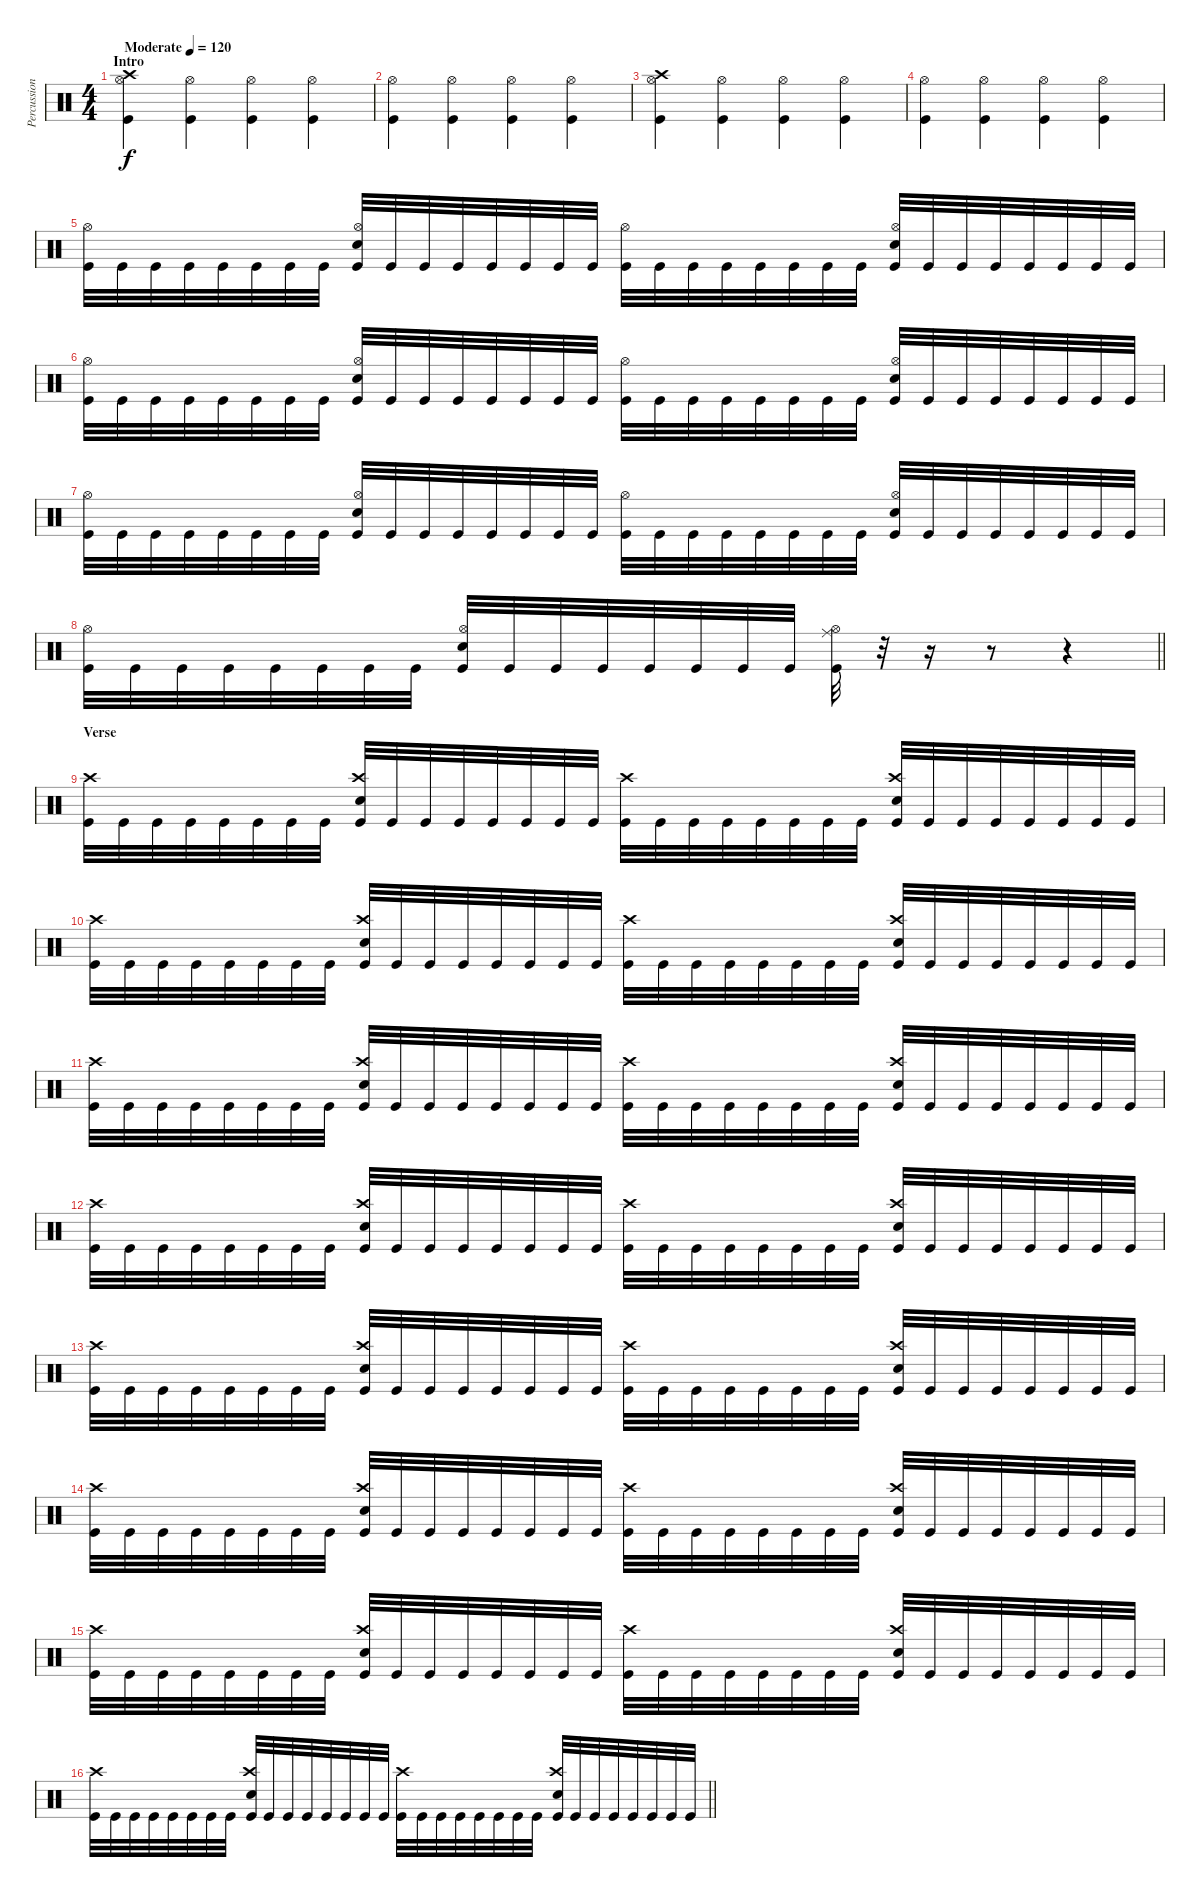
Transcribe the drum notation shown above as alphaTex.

\track ("Percussion" "Percussion") {instrument percussion}
\staff {score}
\articulation defaults
\ts (4 4)
\section ("" "Intro")
\tempo (120 "Moderate")
\clef neutral
\ks c
("Kick (hit)" "Crash high (hit)" "Hi-Hat (open)").4{dy f} ("Kick (hit)" "Hi-Hat (open)").4 ("Kick (hit)" "Hi-Hat (open)").4 ("Kick (hit)" "Hi-Hat (open)").4 |
("Kick (hit)" "Hi-Hat (open)").4 ("Hi-Hat (open)" "Kick (hit)").4 ("Hi-Hat (open)" "Kick (hit)").4 ("Hi-Hat (open)" "Kick (hit)").4 |
("Kick (hit)" "Crash high (hit)" "Hi-Hat (open)").4 ("Kick (hit)" "Hi-Hat (open)").4 ("Kick (hit)" "Hi-Hat (open)").4 ("Kick (hit)" "Hi-Hat (open)").4 |
("Kick (hit)" "Hi-Hat (open)").4 ("Hi-Hat (open)" "Kick (hit)").4 ("Hi-Hat (open)" "Kick (hit)").4 ("Hi-Hat (open)" "Kick (hit)").4 |
("Kick (hit)" "Hi-Hat (open)").32 "Kick (hit)".32 "Kick (hit)".32 "Kick (hit)".32 "Kick (hit)".32 "Kick (hit)".32 "Kick (hit)".32 "Kick (hit)".32 ("Kick (hit)" "Hi-Hat (open)" "Snare (hit) 2").32 "Kick (hit)".32 "Kick (hit)".32 "Kick (hit)".32 "Kick (hit)".32 "Kick (hit)".32 "Kick (hit)".32 "Kick (hit)".32 ("Kick (hit)" "Hi-Hat (open)").32 "Kick (hit)".32 "Kick (hit)".32 "Kick (hit)".32 "Kick (hit)".32 "Kick (hit)".32 "Kick (hit)".32 "Kick (hit)".32 ("Kick (hit)" "Hi-Hat (open)" "Snare (hit) 2").32 "Kick (hit)".32 "Kick (hit)".32 "Kick (hit)".32 "Kick (hit)".32 "Kick (hit)".32 "Kick (hit)".32 "Kick (hit)".32 |
("Kick (hit)" "Hi-Hat (open)").32 "Kick (hit)".32 "Kick (hit)".32 "Kick (hit)".32 "Kick (hit)".32 "Kick (hit)".32 "Kick (hit)".32 "Kick (hit)".32 ("Kick (hit)" "Hi-Hat (open)" "Snare (hit) 2").32 "Kick (hit)".32 "Kick (hit)".32 "Kick (hit)".32 "Kick (hit)".32 "Kick (hit)".32 "Kick (hit)".32 "Kick (hit)".32 ("Kick (hit)" "Hi-Hat (open)").32 "Kick (hit)".32 "Kick (hit)".32 "Kick (hit)".32 "Kick (hit)".32 "Kick (hit)".32 "Kick (hit)".32 "Kick (hit)".32 ("Kick (hit)" "Hi-Hat (open)" "Snare (hit) 2").32 "Kick (hit)".32 "Kick (hit)".32 "Kick (hit)".32 "Kick (hit)".32 "Kick (hit)".32 "Kick (hit)".32 "Kick (hit)".32 |
("Kick (hit)" "Hi-Hat (open)").32 "Kick (hit)".32 "Kick (hit)".32 "Kick (hit)".32 "Kick (hit)".32 "Kick (hit)".32 "Kick (hit)".32 "Kick (hit)".32 ("Kick (hit)" "Hi-Hat (open)" "Snare (hit) 2").32 "Kick (hit)".32 "Kick (hit)".32 "Kick (hit)".32 "Kick (hit)".32 "Kick (hit)".32 "Kick (hit)".32 "Kick (hit)".32 ("Kick (hit)" "Hi-Hat (open)").32 "Kick (hit)".32 "Kick (hit)".32 "Kick (hit)".32 "Kick (hit)".32 "Kick (hit)".32 "Kick (hit)".32 "Kick (hit)".32 ("Kick (hit)" "Hi-Hat (open)" "Snare (hit) 2").32 "Kick (hit)".32 "Kick (hit)".32 "Kick (hit)".32 "Kick (hit)".32 "Kick (hit)".32 "Kick (hit)".32 "Kick (hit)".32 |
\barLineRight lightlight
("Kick (hit)" "Hi-Hat (open)").32 "Kick (hit)".32 "Kick (hit)".32 "Kick (hit)".32 "Kick (hit)".32 "Kick (hit)".32 "Kick (hit)".32 "Kick (hit)".32 ("Kick (hit)" "Hi-Hat (open)" "Snare (hit) 2").32 "Kick (hit)".32 "Kick (hit)".32 "Kick (hit)".32 "Kick (hit)".32 "Kick (hit)".32 "Kick (hit)".32 "Kick (hit)".32 ("Kick (hit)" "Hi-Hat (open)" "Ride (middle)").32 r.32 r.16 r.8 r.4 |
\section ("" "Verse")
("Kick (hit)" "Crash high (hit)").32 "Kick (hit)".32 "Kick (hit)".32 "Kick (hit)".32 "Kick (hit)".32 "Kick (hit)".32 "Kick (hit)".32 "Kick (hit)".32 ("Kick (hit)" "Snare (hit) 2" "Crash high (hit)").32 "Kick (hit)".32 "Kick (hit)".32 "Kick (hit)".32 "Kick (hit)".32 "Kick (hit)".32 "Kick (hit)".32 "Kick (hit)".32 ("Kick (hit)" "Crash high (hit)").32 "Kick (hit)".32 "Kick (hit)".32 "Kick (hit)".32 "Kick (hit)".32 "Kick (hit)".32 "Kick (hit)".32 "Kick (hit)".32 ("Kick (hit)" "Snare (hit) 2" "Crash high (hit)").32 "Kick (hit)".32 "Kick (hit)".32 "Kick (hit)".32 "Kick (hit)".32 "Kick (hit)".32 "Kick (hit)".32 "Kick (hit)".32 |
("Kick (hit)" "Crash high (hit)").32 "Kick (hit)".32 "Kick (hit)".32 "Kick (hit)".32 "Kick (hit)".32 "Kick (hit)".32 "Kick (hit)".32 "Kick (hit)".32 ("Kick (hit)" "Snare (hit) 2" "Crash high (hit)").32 "Kick (hit)".32 "Kick (hit)".32 "Kick (hit)".32 "Kick (hit)".32 "Kick (hit)".32 "Kick (hit)".32 "Kick (hit)".32 ("Kick (hit)" "Crash high (hit)").32 "Kick (hit)".32 "Kick (hit)".32 "Kick (hit)".32 "Kick (hit)".32 "Kick (hit)".32 "Kick (hit)".32 "Kick (hit)".32 ("Kick (hit)" "Snare (hit) 2" "Crash high (hit)").32 "Kick (hit)".32 "Kick (hit)".32 "Kick (hit)".32 "Kick (hit)".32 "Kick (hit)".32 "Kick (hit)".32 "Kick (hit)".32 |
("Kick (hit)" "Crash high (hit)").32 "Kick (hit)".32 "Kick (hit)".32 "Kick (hit)".32 "Kick (hit)".32 "Kick (hit)".32 "Kick (hit)".32 "Kick (hit)".32 ("Kick (hit)" "Snare (hit) 2" "Crash high (hit)").32 "Kick (hit)".32 "Kick (hit)".32 "Kick (hit)".32 "Kick (hit)".32 "Kick (hit)".32 "Kick (hit)".32 "Kick (hit)".32 ("Kick (hit)" "Crash high (hit)").32 "Kick (hit)".32 "Kick (hit)".32 "Kick (hit)".32 "Kick (hit)".32 "Kick (hit)".32 "Kick (hit)".32 "Kick (hit)".32 ("Kick (hit)" "Snare (hit) 2" "Crash high (hit)").32 "Kick (hit)".32 "Kick (hit)".32 "Kick (hit)".32 "Kick (hit)".32 "Kick (hit)".32 "Kick (hit)".32 "Kick (hit)".32 |
("Kick (hit)" "Crash high (hit)").32 "Kick (hit)".32 "Kick (hit)".32 "Kick (hit)".32 "Kick (hit)".32 "Kick (hit)".32 "Kick (hit)".32 "Kick (hit)".32 ("Kick (hit)" "Snare (hit) 2" "Crash high (hit)").32 "Kick (hit)".32 "Kick (hit)".32 "Kick (hit)".32 "Kick (hit)".32 "Kick (hit)".32 "Kick (hit)".32 "Kick (hit)".32 ("Kick (hit)" "Crash high (hit)").32 "Kick (hit)".32 "Kick (hit)".32 "Kick (hit)".32 "Kick (hit)".32 "Kick (hit)".32 "Kick (hit)".32 "Kick (hit)".32 ("Kick (hit)" "Snare (hit) 2" "Crash high (hit)").32 "Kick (hit)".32 "Kick (hit)".32 "Kick (hit)".32 "Kick (hit)".32 "Kick (hit)".32 "Kick (hit)".32 "Kick (hit)".32 |
("Kick (hit)" "Crash high (hit)").32 "Kick (hit)".32 "Kick (hit)".32 "Kick (hit)".32 "Kick (hit)".32 "Kick (hit)".32 "Kick (hit)".32 "Kick (hit)".32 ("Kick (hit)" "Snare (hit) 2" "Crash high (hit)").32 "Kick (hit)".32 "Kick (hit)".32 "Kick (hit)".32 "Kick (hit)".32 "Kick (hit)".32 "Kick (hit)".32 "Kick (hit)".32 ("Kick (hit)" "Crash high (hit)").32 "Kick (hit)".32 "Kick (hit)".32 "Kick (hit)".32 "Kick (hit)".32 "Kick (hit)".32 "Kick (hit)".32 "Kick (hit)".32 ("Kick (hit)" "Snare (hit) 2" "Crash high (hit)").32 "Kick (hit)".32 "Kick (hit)".32 "Kick (hit)".32 "Kick (hit)".32 "Kick (hit)".32 "Kick (hit)".32 "Kick (hit)".32 |
("Kick (hit)" "Crash high (hit)").32 "Kick (hit)".32 "Kick (hit)".32 "Kick (hit)".32 "Kick (hit)".32 "Kick (hit)".32 "Kick (hit)".32 "Kick (hit)".32 ("Kick (hit)" "Snare (hit) 2" "Crash high (hit)").32 "Kick (hit)".32 "Kick (hit)".32 "Kick (hit)".32 "Kick (hit)".32 "Kick (hit)".32 "Kick (hit)".32 "Kick (hit)".32 ("Kick (hit)" "Crash high (hit)").32 "Kick (hit)".32 "Kick (hit)".32 "Kick (hit)".32 "Kick (hit)".32 "Kick (hit)".32 "Kick (hit)".32 "Kick (hit)".32 ("Kick (hit)" "Snare (hit) 2" "Crash high (hit)").32 "Kick (hit)".32 "Kick (hit)".32 "Kick (hit)".32 "Kick (hit)".32 "Kick (hit)".32 "Kick (hit)".32 "Kick (hit)".32 |
("Kick (hit)" "Crash high (hit)").32 "Kick (hit)".32 "Kick (hit)".32 "Kick (hit)".32 "Kick (hit)".32 "Kick (hit)".32 "Kick (hit)".32 "Kick (hit)".32 ("Kick (hit)" "Snare (hit) 2" "Crash high (hit)").32 "Kick (hit)".32 "Kick (hit)".32 "Kick (hit)".32 "Kick (hit)".32 "Kick (hit)".32 "Kick (hit)".32 "Kick (hit)".32 ("Kick (hit)" "Crash high (hit)").32 "Kick (hit)".32 "Kick (hit)".32 "Kick (hit)".32 "Kick (hit)".32 "Kick (hit)".32 "Kick (hit)".32 "Kick (hit)".32 ("Kick (hit)" "Snare (hit) 2" "Crash high (hit)").32 "Kick (hit)".32 "Kick (hit)".32 "Kick (hit)".32 "Kick (hit)".32 "Kick (hit)".32 "Kick (hit)".32 "Kick (hit)".32 |
\barLineRight lightlight
("Kick (hit)" "Crash high (hit)").32 "Kick (hit)".32 "Kick (hit)".32 "Kick (hit)".32 "Kick (hit)".32 "Kick (hit)".32 "Kick (hit)".32 "Kick (hit)".32 ("Kick (hit)" "Snare (hit) 2" "Crash high (hit)").32 "Kick (hit)".32 "Kick (hit)".32 "Kick (hit)".32 "Kick (hit)".32 "Kick (hit)".32 "Kick (hit)".32 "Kick (hit)".32 ("Kick (hit)" "Crash high (hit)").32 "Kick (hit)".32 "Kick (hit)".32 "Kick (hit)".32 "Kick (hit)".32 "Kick (hit)".32 "Kick (hit)".32 "Kick (hit)".32 ("Kick (hit)" "Snare (hit) 2" "Crash high (hit)").32 "Kick (hit)".32 "Kick (hit)".32 "Kick (hit)".32 "Kick (hit)".32 "Kick (hit)".32 "Kick (hit)".32 "Kick (hit)".32
